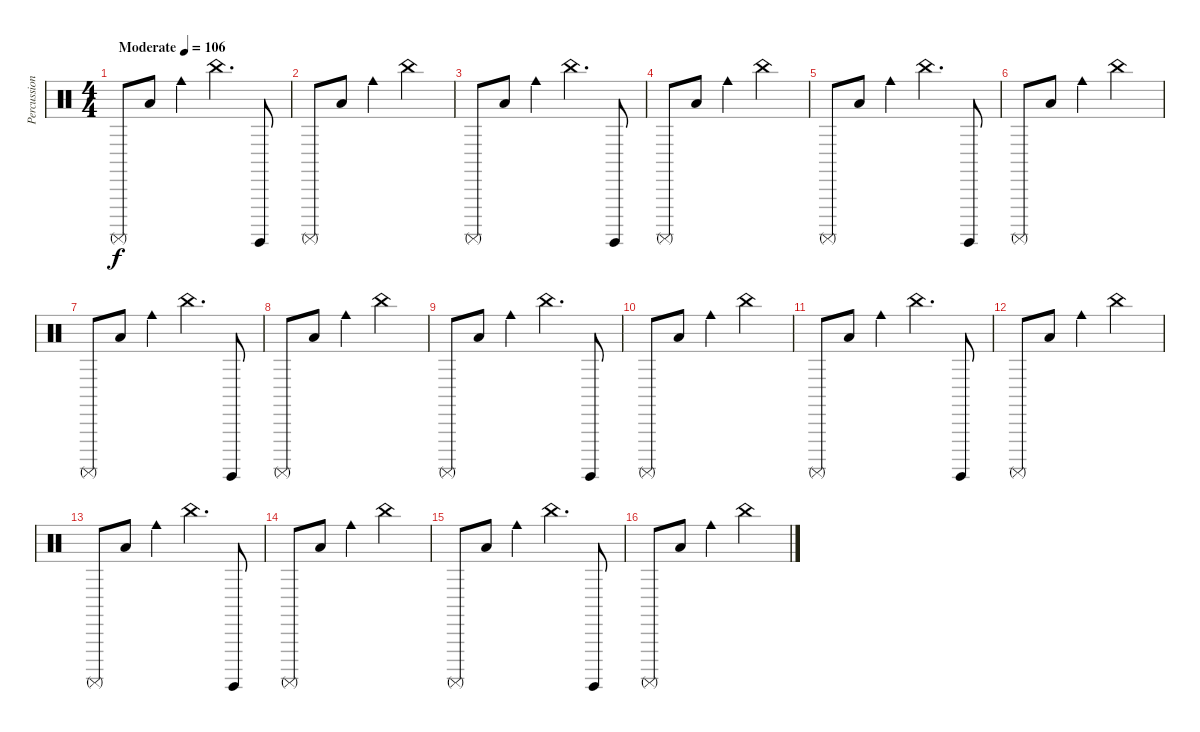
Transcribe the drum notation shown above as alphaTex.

\track ("Percussion" "Percussion") {instrument percussion}
\staff {score}
\articulation defaults
\ts (4 4)
\tempo (106 "Moderate")
\clef neutral
\ks c "Surdo (mute)".8{dy f} "Low Floor Tom (hit)".8 "Cowbell medium (hit)".4 "China (hit)".4{d} "Surdo (hit)".8
|
"Surdo (mute)".8 "Low Floor Tom (hit)".8 "Cowbell medium (hit)".4 "China (hit)".2 |
"Surdo (mute)".8 "Low Floor Tom (hit)".8 "Cowbell medium (hit)".4 "China (hit)".4{d} "Surdo (hit)".8 |
"Surdo (mute)".8 "Low Floor Tom (hit)".8 "Cowbell medium (hit)".4 "China (hit)".2 |
"Surdo (mute)".8 "Low Floor Tom (hit)".8 "Cowbell medium (hit)".4 "China (hit)".4{d} "Surdo (hit)".8 |
"Surdo (mute)".8 "Low Floor Tom (hit)".8 "Cowbell medium (hit)".4 "China (hit)".2 |
"Surdo (mute)".8 "Low Floor Tom (hit)".8 "Cowbell medium (hit)".4 "China (hit)".4{d} "Surdo (hit)".8 |
"Surdo (mute)".8 "Low Floor Tom (hit)".8 "Cowbell medium (hit)".4 "China (hit)".2 |
"Surdo (mute)".8 "Low Floor Tom (hit)".8 "Cowbell medium (hit)".4 "China (hit)".4{d} "Surdo (hit)".8 |
"Surdo (mute)".8 "Low Floor Tom (hit)".8 "Cowbell medium (hit)".4 "China (hit)".2 |
"Surdo (mute)".8 "Low Floor Tom (hit)".8 "Cowbell medium (hit)".4 "China (hit)".4{d} "Surdo (hit)".8 |
"Surdo (mute)".8 "Low Floor Tom (hit)".8 "Cowbell medium (hit)".4 "China (hit)".2 |
"Surdo (mute)".8 "Low Floor Tom (hit)".8 "Cowbell medium (hit)".4 "China (hit)".4{d} "Surdo (hit)".8 |
"Surdo (mute)".8 "Low Floor Tom (hit)".8 "Cowbell medium (hit)".4 "China (hit)".2 |
"Surdo (mute)".8 "Low Floor Tom (hit)".8 "Cowbell medium (hit)".4 "China (hit)".4{d} "Surdo (hit)".8 |
"Surdo (mute)".8 "Low Floor Tom (hit)".8 "Cowbell medium (hit)".4 "China (hit)".2
